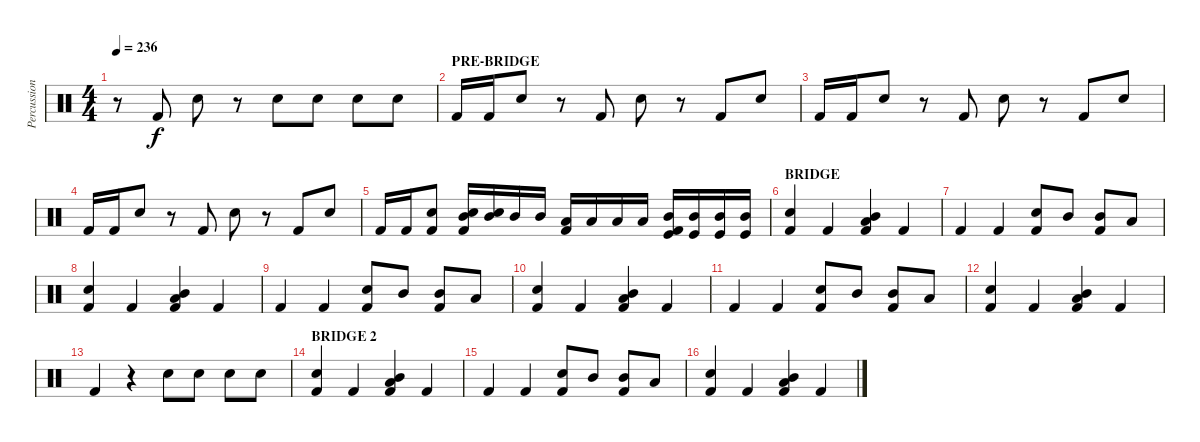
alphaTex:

\track ("Percussions" "Percussion") {instrument percussion}
\staff {score}
\articulation defaults
\ts (4 4)
\tempo 236
\clef neutral
\ks c
r.8{dy f} "Kick (hit) 2".8 "Snare (hit) 2".8 r.8 "Snare (hit) 2".8 "Snare (hit) 2".8 "Snare (hit) 2".8 "Snare (hit) 2".8 |
\section ("" "PRE-BRIDGE")
"Kick (hit) 2".16 "Kick (hit) 2".16 "Snare (hit) 2".8 r.8 "Kick (hit) 2".8 "Snare (hit) 2".8 r.8 "Kick (hit) 2".8 "Snare (hit) 2".8 |
"Kick (hit) 2".16 "Kick (hit) 2".16 "Snare (hit) 2".8 r.8 "Kick (hit) 2".8 "Snare (hit) 2".8 r.8 "Kick (hit) 2".8 "Snare (hit) 2".8 |
"Kick (hit) 2".16 "Kick (hit) 2".16 "Snare (hit) 2".8 r.8 "Kick (hit) 2".8 "Snare (hit) 2".8 r.8 "Kick (hit) 2".8 "Snare (hit) 2".8 |
"Kick (hit) 2".16 "Kick (hit) 2".16 ("Snare (hit) 2" "Kick (hit) 2").8 ("Snare (hit) 2" "Mid Tom (hit)" "Kick (hit) 2").16 ("Snare (hit) 2" "Mid Tom (hit)").16 "Mid Tom (hit)".16 "Mid Tom (hit)".16 ("Low Tom (hit)" "Kick (hit) 2").16 "Low Tom (hit)".16 "Low Tom (hit)".16 "Low Tom (hit)".16 ("Mid Tom (hit)" "Kick (hit)" "Kick (hit) 2").16 ("Mid Tom (hit)" "Kick (hit)").16 ("Mid Tom (hit)" "Kick (hit)").16 ("Mid Tom (hit)" "Kick (hit)").16 |
\section ("" "BRIDGE")
("Snare (hit) 2" "Kick (hit) 2").4 "Kick (hit) 2".4 ("Low Tom (hit)" "Mid Tom (hit)" "Kick (hit) 2").4 "Kick (hit) 2".4 |
"Kick (hit) 2".4 "Kick (hit) 2".4 ("Snare (hit) 2" "Kick (hit) 2").8 "Mid Tom (hit)".8 ("Mid Tom (hit)" "Kick (hit) 2").8 "Low Tom (hit)".8 |
("Snare (hit) 2" "Kick (hit) 2").4 "Kick (hit) 2".4 ("Low Tom (hit)" "Mid Tom (hit)" "Kick (hit) 2").4 "Kick (hit) 2".4 |
"Kick (hit) 2".4 "Kick (hit) 2".4 ("Snare (hit) 2" "Kick (hit) 2").8 "Mid Tom (hit)".8 ("Mid Tom (hit)" "Kick (hit) 2").8 "Low Tom (hit)".8 |
("Snare (hit) 2" "Kick (hit) 2").4 "Kick (hit) 2".4 ("Low Tom (hit)" "Mid Tom (hit)" "Kick (hit) 2").4 "Kick (hit) 2".4 |
"Kick (hit) 2".4 "Kick (hit) 2".4 ("Snare (hit) 2" "Kick (hit) 2").8 "Mid Tom (hit)".8 ("Mid Tom (hit)" "Kick (hit) 2").8 "Low Tom (hit)".8 |
("Snare (hit) 2" "Kick (hit) 2").4 "Kick (hit) 2".4 ("Low Tom (hit)" "Mid Tom (hit)" "Kick (hit) 2").4 "Kick (hit) 2".4 |
"Kick (hit) 2".4 r.4 "Snare (hit) 2".8 "Snare (hit) 2".8 "Snare (hit) 2".8 "Snare (hit) 2".8 |
\section ("" "BRIDGE 2")
("Snare (hit) 2" "Kick (hit) 2").4 "Kick (hit) 2".4 ("Low Tom (hit)" "Mid Tom (hit)" "Kick (hit) 2").4 "Kick (hit) 2".4 |
"Kick (hit) 2".4 "Kick (hit) 2".4 ("Snare (hit) 2" "Kick (hit) 2").8 "Mid Tom (hit)".8 ("Mid Tom (hit)" "Kick (hit) 2").8 "Low Tom (hit)".8 |
("Snare (hit) 2" "Kick (hit) 2").4 "Kick (hit) 2".4 ("Low Tom (hit)" "Mid Tom (hit)" "Kick (hit) 2").4 "Kick (hit) 2".4
